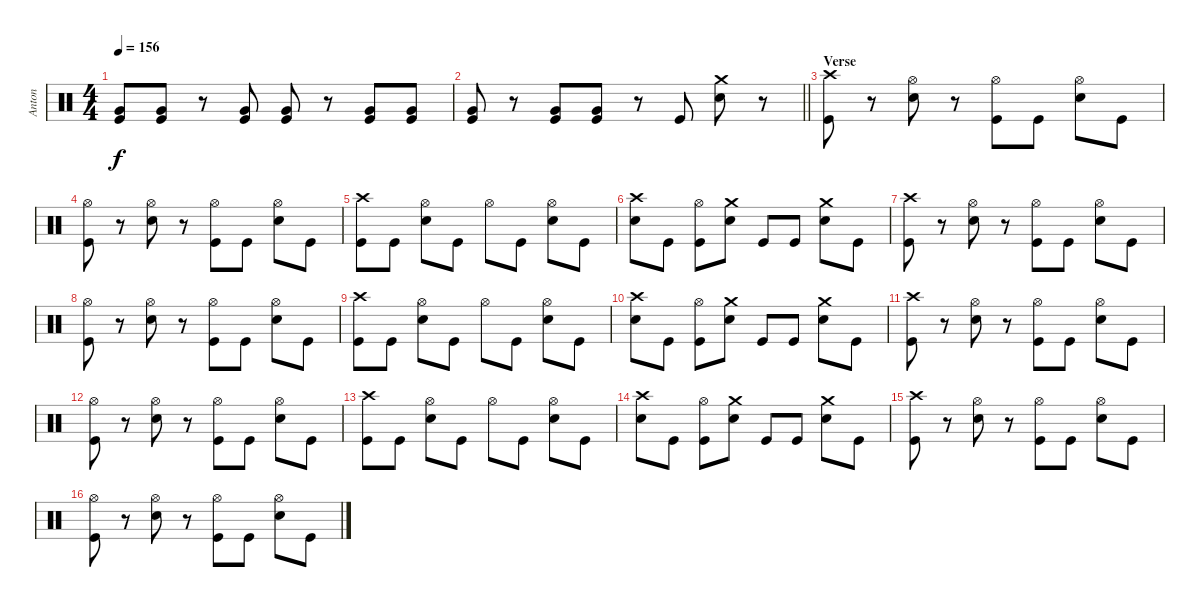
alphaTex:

\track ("Anton " "Anton ") {instrument percussion}
\staff
\articulation defaults
\ts (4 4)
\tempo 156
\clef neutral
\ks c
("Kick (hit)" "Very Low Tom (hit)").8{dy f} ("Kick (hit)" "Very Low Tom (hit)").8 r.8 ("Kick (hit)" "Very Low Tom (hit)").8 ("Kick (hit)" "Very Low Tom (hit)").8 r.8 ("Kick (hit)" "Very Low Tom (hit)").8 ("Kick (hit)" "Very Low Tom (hit)").8 |
\barLineRight lightlight
("Kick (hit)" "Very Low Tom (hit)").8 r.8 ("Kick (hit)" "Very Low Tom (hit)").8 ("Kick (hit)" "Very Low Tom (hit)").8 r.8 "Kick (hit)".8 ("Snare (hit) 2" "Crash medium (hit)").8 r.8 |
\section ("" "Verse")
("Kick (hit)" "Crash high (hit)").8 r.8 ("Snare (hit) 2" "Hi-Hat (open)").8 r.8 ("Kick (hit)" "Hi-Hat (open)").8 "Kick (hit)".8 ("Snare (hit) 2" "Hi-Hat (open)").8 "Kick (hit)".8 |
("Kick (hit)" "Hi-Hat (open)").8 r.8 ("Snare (hit) 2" "Hi-Hat (open)").8 r.8 ("Hi-Hat (open)" "Kick (hit)").8 "Kick (hit)".8 ("Snare (hit) 2" "Hi-Hat (open)").8 "Kick (hit)".8 |
("Kick (hit)" "Crash high (hit)").8 "Kick (hit)".8 ("Hi-Hat (open)" "Snare (hit) 2").8 "Kick (hit)".8 "Hi-Hat (open)".8 "Kick (hit)".8 ("Hi-Hat (open)" "Snare (hit) 2").8 "Kick (hit)".8 |
("Crash high (hit)" "Snare (hit) 2").8 "Kick (hit)".8 ("Kick (hit)" "Hi-Hat (open)").8 ("Snare (hit) 2" "Crash medium (hit)").8 "Kick (hit)".8 "Kick (hit)".8 ("Snare (hit) 2" "Crash medium (hit)").8 "Kick (hit)".8 |
("Kick (hit)" "Crash high (hit)").8 r.8 ("Snare (hit) 2" "Hi-Hat (open)").8 r.8 ("Kick (hit)" "Hi-Hat (open)").8 "Kick (hit)".8 ("Snare (hit) 2" "Hi-Hat (open)").8 "Kick (hit)".8 |
("Kick (hit)" "Hi-Hat (open)").8 r.8 ("Snare (hit) 2" "Hi-Hat (open)").8 r.8 ("Hi-Hat (open)" "Kick (hit)").8 "Kick (hit)".8 ("Snare (hit) 2" "Hi-Hat (open)").8 "Kick (hit)".8 |
("Kick (hit)" "Crash high (hit)").8 "Kick (hit)".8 ("Hi-Hat (open)" "Snare (hit) 2").8 "Kick (hit)".8 "Hi-Hat (open)".8 "Kick (hit)".8 ("Hi-Hat (open)" "Snare (hit) 2").8 "Kick (hit)".8 |
("Crash high (hit)" "Snare (hit) 2").8 "Kick (hit)".8 ("Kick (hit)" "Hi-Hat (open)").8 ("Snare (hit) 2" "Crash medium (hit)").8 "Kick (hit)".8 "Kick (hit)".8 ("Snare (hit) 2" "Crash medium (hit)").8 "Kick (hit)".8 |
("Kick (hit)" "Crash high (hit)").8 r.8 ("Snare (hit) 2" "Hi-Hat (open)").8 r.8 ("Kick (hit)" "Hi-Hat (open)").8 "Kick (hit)".8 ("Snare (hit) 2" "Hi-Hat (open)").8 "Kick (hit)".8 |
("Kick (hit)" "Hi-Hat (open)").8 r.8 ("Snare (hit) 2" "Hi-Hat (open)").8 r.8 ("Hi-Hat (open)" "Kick (hit)").8 "Kick (hit)".8 ("Snare (hit) 2" "Hi-Hat (open)").8 "Kick (hit)".8 |
("Kick (hit)" "Crash high (hit)").8 "Kick (hit)".8 ("Hi-Hat (open)" "Snare (hit) 2").8 "Kick (hit)".8 "Hi-Hat (open)".8 "Kick (hit)".8 ("Hi-Hat (open)" "Snare (hit) 2").8 "Kick (hit)".8 |
("Crash high (hit)" "Snare (hit) 2").8 "Kick (hit)".8 ("Kick (hit)" "Hi-Hat (open)").8 ("Snare (hit) 2" "Crash medium (hit)").8 "Kick (hit)".8 "Kick (hit)".8 ("Snare (hit) 2" "Crash medium (hit)").8 "Kick (hit)".8 |
("Kick (hit)" "Crash high (hit)").8 r.8 ("Snare (hit) 2" "Hi-Hat (open)").8 r.8 ("Kick (hit)" "Hi-Hat (open)").8 "Kick (hit)".8 ("Snare (hit) 2" "Hi-Hat (open)").8 "Kick (hit)".8 |
("Kick (hit)" "Hi-Hat (open)").8 r.8 ("Snare (hit) 2" "Hi-Hat (open)").8 r.8 ("Hi-Hat (open)" "Kick (hit)").8 "Kick (hit)".8 ("Snare (hit) 2" "Hi-Hat (open)").8 "Kick (hit)".8
